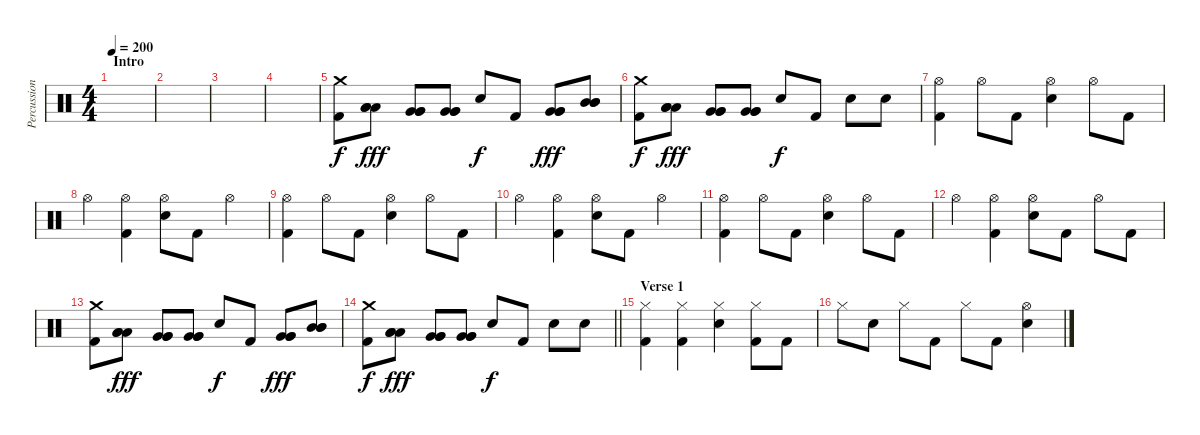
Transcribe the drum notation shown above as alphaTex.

\track ("Percussion" "Percussion") {instrument percussion}
\staff {score}
\articulation defaults
\ts (4 4)
\section ("" "Intro")
\tempo 200
\clef neutral
\ks c
|
|
|
|
("Crash medium (hit)" "Kick (hit) 2").8 ("Low Tom (hit)" "Low Tom (hit)" "Low Tom (hit)").8{dy fff balance 12} ("Very Low Tom (hit)" "Very Low Tom (hit)" "Very Low Tom (hit)").8{balance 4} ("Very Low Tom (hit)" "Very Low Tom (hit)" "Very Low Tom (hit)").8 "Electric Snare (hit)".8{dy f balance 8} "Kick (hit) 2".8 ("Very Low Tom (hit)" "Very Low Tom (hit)" "Very Low Tom (hit)").8{dy fff balance 0} ("Mid Tom (hit)" "Mid Tom (hit)" "Mid Tom (hit)").8{balance 16} |
("Crash medium (hit)" "Kick (hit) 2").8{dy f} ("Low Tom (hit)" "Low Tom (hit)" "Low Tom (hit)").8{dy fff balance 14} ("Very Low Tom (hit)" "Very Low Tom (hit)" "Very Low Tom (hit)").8{balance 2} ("Very Low Tom (hit)" "Very Low Tom (hit)" "Very Low Tom (hit)").8 "Electric Snare (hit)".8{dy f balance 8} "Kick (hit) 2".8 "Electric Snare (hit)".8 "Electric Snare (hit)".8 |
("Hi-Hat (open)" "Kick (hit) 2").4 "Hi-Hat (open)".8 "Kick (hit) 2".8 ("Hi-Hat (open)" "Electric Snare (hit)").4 "Hi-Hat (open)".8 "Kick (hit) 2".8 |
"Hi-Hat (open)".4 ("Hi-Hat (open)" "Kick (hit) 2").4 ("Hi-Hat (open)" "Electric Snare (hit)").8 "Kick (hit) 2".8 "Hi-Hat (open)".4 |
("Hi-Hat (open)" "Kick (hit) 2").4 "Hi-Hat (open)".8 "Kick (hit) 2".8 ("Hi-Hat (open)" "Electric Snare (hit)").4 "Hi-Hat (open)".8 "Kick (hit) 2".8 |
"Hi-Hat (open)".4 ("Hi-Hat (open)" "Kick (hit) 2").4 ("Hi-Hat (open)" "Electric Snare (hit)").8 "Kick (hit) 2".8 "Hi-Hat (open)".4 |
("Hi-Hat (open)" "Kick (hit) 2").4 "Hi-Hat (open)".8 "Kick (hit) 2".8 ("Hi-Hat (open)" "Electric Snare (hit)").4 "Hi-Hat (open)".8 "Kick (hit) 2".8 |
"Hi-Hat (open)".4 ("Hi-Hat (open)" "Kick (hit) 2").4 ("Hi-Hat (open)" "Electric Snare (hit)").8 "Kick (hit) 2".8 "Hi-Hat (open)".8 "Kick (hit) 2".8 |
("Crash medium (hit)" "Kick (hit) 2").8 ("Low Tom (hit)" "Low Tom (hit)" "Low Tom (hit)").8{dy fff balance 14} ("Very Low Tom (hit)" "Very Low Tom (hit)" "Very Low Tom (hit)").8{balance 2} ("Very Low Tom (hit)" "Very Low Tom (hit)" "Very Low Tom (hit)").8 "Electric Snare (hit)".8{dy f balance 8} "Kick (hit) 2".8 ("Very Low Tom (hit)" "Very Low Tom (hit)" "Very Low Tom (hit)").8{dy fff balance 0} ("Mid Tom (hit)" "Mid Tom (hit)" "Mid Tom (hit)").8{balance 16} |
\barLineRight lightlight
("Crash medium (hit)" "Kick (hit) 2").8{dy f} ("Low Tom (hit)" "Low Tom (hit)" "Low Tom (hit)").8{dy fff balance 14} ("Very Low Tom (hit)" "Very Low Tom (hit)" "Very Low Tom (hit)").8{balance 2} ("Very Low Tom (hit)" "Very Low Tom (hit)" "Very Low Tom (hit)").8 "Electric Snare (hit)".8{dy f balance 8} "Kick (hit) 2".8 "Electric Snare (hit)".8 "Electric Snare (hit)".8 |
\section ("" "Verse 1")
("Hi-Hat (closed)" "Kick (hit) 2").4 ("Hi-Hat (closed)" "Kick (hit) 2").4 ("Hi-Hat (closed)" "Electric Snare (hit)").4 ("Hi-Hat (closed)" "Kick (hit) 2").8 "Kick (hit) 2".8 |
"Hi-Hat (closed)".8 "Electric Snare (hit)".8 "Hi-Hat (closed)".8 "Kick (hit) 2".8 "Hi-Hat (closed)".8 "Kick (hit) 2".8 ("Hi-Hat (open)" "Electric Snare (hit)").4
